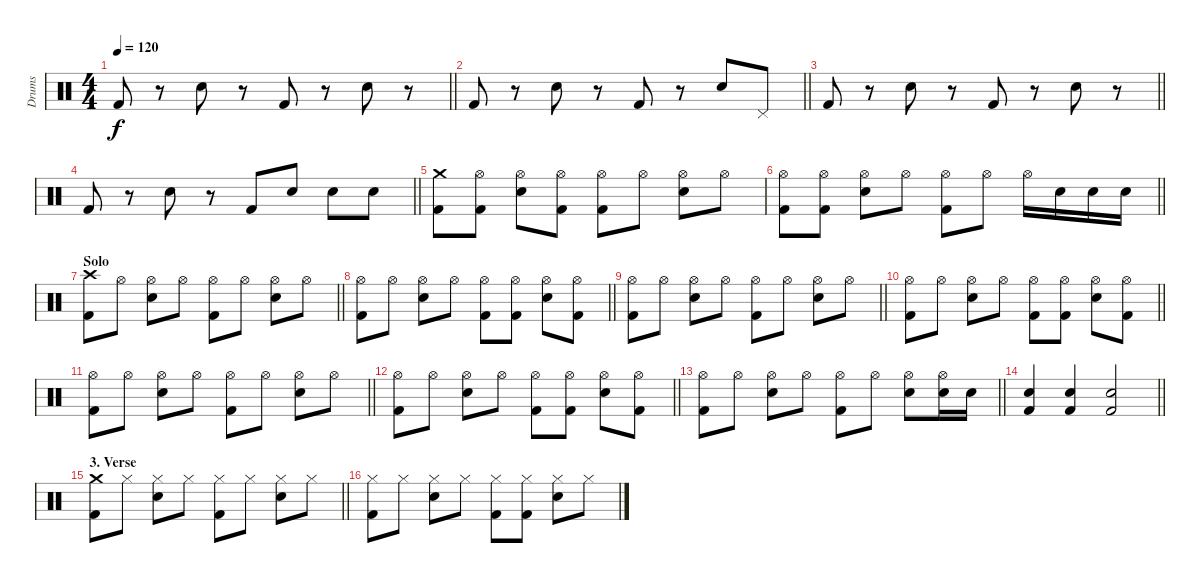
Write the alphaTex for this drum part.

\track ("Drums" "Drums") {instrument percussion}
\staff {score}
\articulation defaults
\ts (4 4)
\tempo 120
\clef neutral
\barLineRight lightlight
\ks c "Kick (hit) 2".8{dy f}
r.8 "Snare (hit) 2".8 r.8 "Kick (hit) 2".8 r.8 "Snare (hit) 2".8 r.8 |
\barLineRight lightlight "Kick (hit) 2".8
r.8 "Snare (hit) 2".8 r.8 "Kick (hit) 2".8 r.8 "Snare (hit) 2".8 "Pedal Hi-Hat (hit)".8 |
\barLineRight lightlight "Kick (hit) 2".8
r.8 "Snare (hit) 2".8 r.8 "Kick (hit) 2".8 r.8 "Snare (hit) 2".8 r.8 |
\barLineRight lightlight "Kick (hit) 2".8
r.8 "Snare (hit) 2".8 r.8 "Kick (hit) 2".8 "Snare (hit) 2".8 "Snare (hit) 2".8 "Snare (hit) 2".8 |
("Crash medium (hit)" "Kick (hit) 2").8 ("Hi-Hat (open)" "Kick (hit) 2").8 ("Hi-Hat (open)" "Snare (hit) 2").8 ("Hi-Hat (open)" "Kick (hit) 2").8 ("Hi-Hat (open)" "Kick (hit) 2").8 "Hi-Hat (open)".8 ("Hi-Hat (open)" "Snare (hit) 2").8 "Hi-Hat (open)".8 |
\barLineRight lightlight
("Hi-Hat (open)" "Kick (hit) 2").8 ("Hi-Hat (open)" "Kick (hit) 2").8 ("Hi-Hat (open)" "Snare (hit) 2").8 "Hi-Hat (open)".8 ("Hi-Hat (open)" "Kick (hit) 2").8 "Hi-Hat (open)".8 "Hi-Hat (open)".16 "Snare (hit) 2".16 "Snare (hit) 2".16 "Snare (hit) 2".16 |
\section ("" "Solo")
\barLineRight lightlight
("Crash high (hit)" "Kick (hit) 2").8 "Hi-Hat (open)".8 ("Hi-Hat (open)" "Snare (hit) 2").8 "Hi-Hat (open)".8 ("Hi-Hat (open)" "Kick (hit) 2").8 "Hi-Hat (open)".8 ("Hi-Hat (open)" "Snare (hit) 2").8 "Hi-Hat (open)".8 |
\barLineRight lightlight
("Hi-Hat (open)" "Kick (hit) 2").8 "Hi-Hat (open)".8 ("Hi-Hat (open)" "Snare (hit) 2").8 "Hi-Hat (open)".8 ("Hi-Hat (open)" "Kick (hit) 2").8 ("Hi-Hat (open)" "Kick (hit) 2").8 ("Hi-Hat (open)" "Snare (hit) 2").8 ("Hi-Hat (open)" "Kick (hit) 2").8 |
\barLineRight lightlight
("Hi-Hat (open)" "Kick (hit) 2").8 "Hi-Hat (open)".8 ("Hi-Hat (open)" "Snare (hit) 2").8 "Hi-Hat (open)".8 ("Hi-Hat (open)" "Kick (hit) 2").8 "Hi-Hat (open)".8 ("Hi-Hat (open)" "Snare (hit) 2").8 "Hi-Hat (open)".8 |
\barLineRight lightlight
("Hi-Hat (open)" "Kick (hit) 2").8 "Hi-Hat (open)".8 ("Hi-Hat (open)" "Snare (hit) 2").8 "Hi-Hat (open)".8 ("Hi-Hat (open)" "Kick (hit) 2").8 ("Hi-Hat (open)" "Kick (hit) 2").8 ("Hi-Hat (open)" "Snare (hit) 2").8 ("Hi-Hat (open)" "Kick (hit) 2").8 |
\barLineRight lightlight
("Hi-Hat (open)" "Kick (hit) 2").8 "Hi-Hat (open)".8 ("Hi-Hat (open)" "Snare (hit) 2").8 "Hi-Hat (open)".8 ("Hi-Hat (open)" "Kick (hit) 2").8 "Hi-Hat (open)".8 ("Hi-Hat (open)" "Snare (hit) 2").8 "Hi-Hat (open)".8 |
\barLineRight lightlight
("Hi-Hat (open)" "Kick (hit) 2").8 "Hi-Hat (open)".8 ("Hi-Hat (open)" "Snare (hit) 2").8 "Hi-Hat (open)".8 ("Hi-Hat (open)" "Kick (hit) 2").8 ("Hi-Hat (open)" "Kick (hit) 2").8 ("Hi-Hat (open)" "Snare (hit) 2").8 ("Hi-Hat (open)" "Kick (hit) 2").8 |
\barLineRight lightlight
("Hi-Hat (open)" "Kick (hit) 2").8 "Hi-Hat (open)".8 ("Hi-Hat (open)" "Snare (hit) 2").8 "Hi-Hat (open)".8 ("Hi-Hat (open)" "Kick (hit) 2").8 "Hi-Hat (open)".8 ("Hi-Hat (open)" "Snare (hit) 2").8 ("Hi-Hat (open)" "Snare (hit) 2").16 "Snare (hit) 2".16 |
\barLineRight lightlight
("Snare (hit) 2" "Kick (hit) 2").4 ("Snare (hit) 2" "Kick (hit) 2").4 ("Snare (hit) 2" "Kick (hit) 2").2 |
\section ("" "3. Verse")
\barLineRight lightlight
("Crash medium (hit)" "Kick (hit) 2").8 "Hi-Hat (closed)".8 ("Hi-Hat (closed)" "Snare (hit) 2").8 "Hi-Hat (closed)".8 ("Hi-Hat (closed)" "Kick (hit) 2").8 "Hi-Hat (closed)".8 ("Hi-Hat (closed)" "Snare (hit) 2").8 "Hi-Hat (closed)".8 |
("Hi-Hat (closed)" "Kick (hit) 2").8 "Hi-Hat (closed)".8 ("Hi-Hat (closed)" "Snare (hit) 2").8 "Hi-Hat (closed)".8 ("Hi-Hat (closed)" "Kick (hit) 2").8 ("Hi-Hat (closed)" "Kick (hit) 2").8 ("Hi-Hat (closed)" "Snare (hit) 2").8 "Hi-Hat (closed)".8
